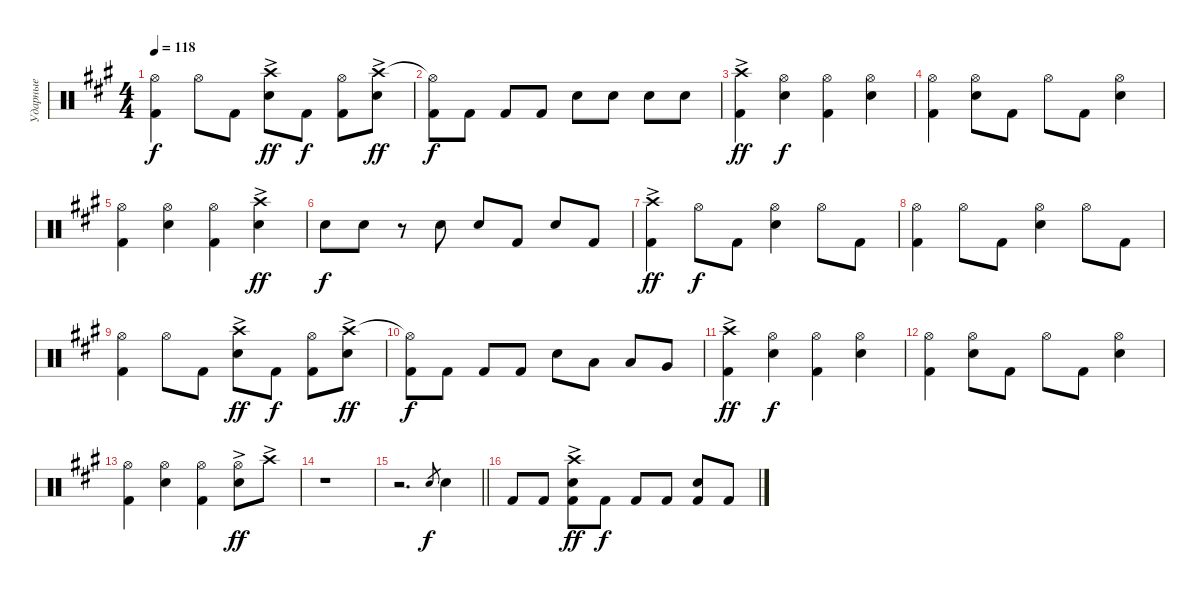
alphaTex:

\track ("Ударные" "Ударные") {instrument percussion}
\staff {score}
\articulation defaults
\ts (4 4)
\tempo 118
\clef neutral
\ks a
("Kick (hit) 2" "Hi-Hat (open)").4{dy f} "Hi-Hat (open)".8 "Kick (hit) 2".8 ("Snare (hit) 2" "Crash high (hit)"{ac}).8{dy ff} "Kick (hit) 2".8{dy f} ("Kick (hit) 2" "Hi-Hat (open)").8 ("Snare (hit) 2" "Crash high (hit)"{ac}).8{dy ff} |
("Kick (hit) 2" "Hi-Hat (open)"{t}).8{dy f} "Kick (hit) 2".8 "Kick (hit) 2".8 "Kick (hit) 2".8 "Snare (hit) 2".8 "Electric Snare (hit)".8 "Snare (hit) 2".8 "Snare (hit) 2".8 |
("Kick (hit) 2" "Crash high (hit)"{ac}).4{dy ff} ("Snare (hit) 2" "Hi-Hat (open)").4{dy f} ("Kick (hit) 2" "Hi-Hat (open)").4 ("Snare (hit) 2" "Hi-Hat (open)").4 |
("Kick (hit) 2" "Hi-Hat (open)").4 ("Snare (hit) 2" "Hi-Hat (open)").8 "Kick (hit) 2".8 "Hi-Hat (open)".8 "Kick (hit) 2".8 ("Snare (hit) 2" "Hi-Hat (open)").4 |
("Kick (hit) 2" "Hi-Hat (open)").4 ("Snare (hit) 2" "Hi-Hat (open)").4 ("Kick (hit) 2" "Hi-Hat (open)").4 ("Snare (hit) 2" "Crash high (hit)"{ac}).4{dy ff} |
"Snare (hit) 2".8{dy f} "Snare (hit) 2".8 r.8 "Snare (hit) 2".8 "Snare (hit) 2".8 "Kick (hit) 2".8 "Snare (hit) 2".8 "Kick (hit) 2".8 |
("Kick (hit) 2" "Crash high (hit)"{ac}).4{dy ff} "Hi-Hat (open)".8{dy f} "Kick (hit) 2".8 ("Snare (hit) 2" "Hi-Hat (open)").4 "Hi-Hat (open)".8 "Kick (hit) 2".8 |
("Kick (hit) 2" "Hi-Hat (open)").4 "Hi-Hat (open)".8 "Kick (hit) 2".8 ("Snare (hit) 2" "Hi-Hat (open)").4 "Hi-Hat (open)".8 "Kick (hit) 2".8 |
("Kick (hit) 2" "Hi-Hat (open)").4 "Hi-Hat (open)".8 "Kick (hit) 2".8 ("Snare (hit) 2" "Crash high (hit)"{ac}).8{dy ff} "Kick (hit) 2".8{dy f} ("Kick (hit) 2" "Hi-Hat (open)").8 ("Snare (hit) 2" "Crash high (hit)"{ac}).8{dy ff} |
("Kick (hit) 2" "Hi-Hat (open)"{t}).8{dy f} "Kick (hit) 2".8 "Kick (hit) 2".8 "Kick (hit) 2".8 "Electric Snare (hit)".8 "Low Tom (hit)".8 "Low Tom (hit)".8 "Very Low Tom (hit)".8 |
("Kick (hit) 2" "Crash high (hit)"{ac}).4{dy ff} ("Snare (hit) 2" "Hi-Hat (open)").4{dy f} ("Kick (hit) 2" "Hi-Hat (open)").4 ("Snare (hit) 2" "Hi-Hat (open)").4 |
("Kick (hit) 2" "Hi-Hat (open)").4 ("Snare (hit) 2" "Hi-Hat (open)").8 "Kick (hit) 2".8 "Hi-Hat (open)".8 "Kick (hit) 2".8 ("Snare (hit) 2" "Hi-Hat (open)").4 |
("Kick (hit) 2" "Hi-Hat (open)").4 ("Snare (hit) 2" "Hi-Hat (open)").4 ("Kick (hit) 2" "Hi-Hat (open)").4 ("Snare (hit) 2" "Hi-Hat (open)"{ac}).8{dy ff} "Crash high (hit)"{ac}.8 |
r.1 |
\barLineRight lightlight
r.2{d} "Snare (hit) 2".8{gr dy f} "Snare (hit) 2".4 |
"Kick (hit) 2".8 "Kick (hit) 2".8 ("Kick (hit) 2" "Snare (hit) 2" "Crash high (hit)"{ac}).8{dy ff} "Kick (hit) 2".8{dy f} "Kick (hit) 2".8 "Kick (hit) 2".8 ("Kick (hit) 2" "Snare (hit) 2").8 "Kick (hit) 2".8
